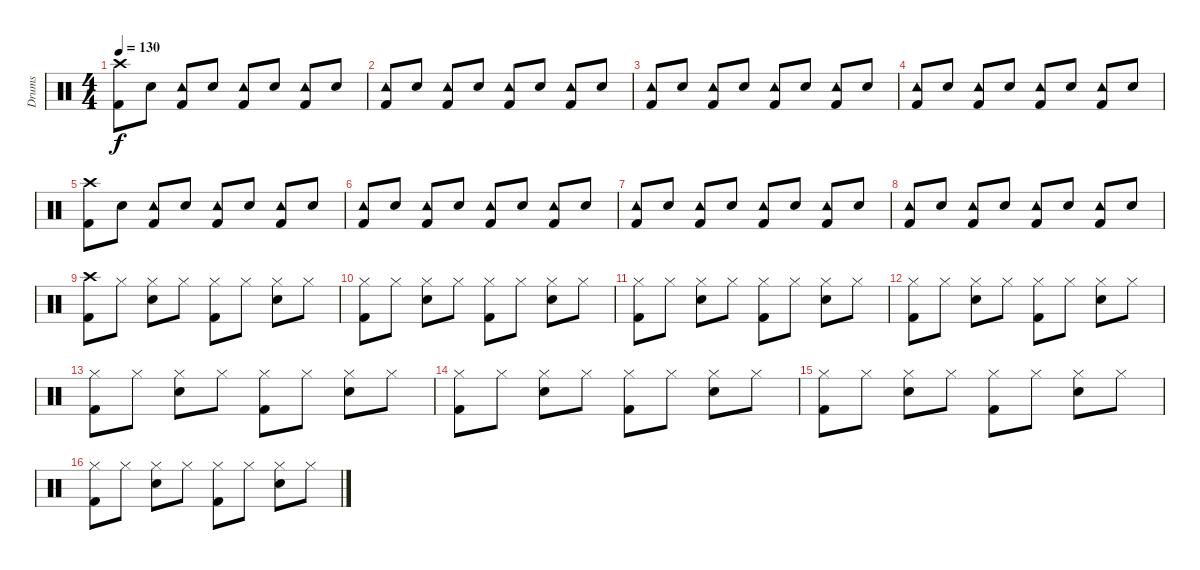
\track ("Drums" "Drums") {instrument percussion}
\staff {score}
\articulation defaults
\ts (4 4)
\tempo 130
\clef neutral
\ks c
("Crash high (hit)" "Kick (hit) 2").8{dy f} "Snare (hit) 2".8 ("Tambourine (hit)" "Kick (hit) 2").8 "Snare (hit) 2".8 ("Tambourine (hit)" "Kick (hit) 2").8 "Snare (hit) 2".8 ("Tambourine (hit)" "Kick (hit) 2").8 "Snare (hit) 2".8 |
("Tambourine (hit)" "Kick (hit) 2").8 "Snare (hit) 2".8 ("Tambourine (hit)" "Kick (hit) 2").8 "Snare (hit) 2".8 ("Tambourine (hit)" "Kick (hit) 2").8 "Snare (hit) 2".8 ("Tambourine (hit)" "Kick (hit) 2").8 "Snare (hit) 2".8 |
("Tambourine (hit)" "Kick (hit) 2").8 "Snare (hit) 2".8 ("Tambourine (hit)" "Kick (hit) 2").8 "Snare (hit) 2".8 ("Tambourine (hit)" "Kick (hit) 2").8 "Snare (hit) 2".8 ("Tambourine (hit)" "Kick (hit) 2").8 "Snare (hit) 2".8 |
("Tambourine (hit)" "Kick (hit) 2").8 "Snare (hit) 2".8 ("Tambourine (hit)" "Kick (hit) 2").8 "Snare (hit) 2".8 ("Tambourine (hit)" "Kick (hit) 2").8 "Snare (hit) 2".8 ("Tambourine (hit)" "Kick (hit) 2").8 "Snare (hit) 2".8 |
("Crash high (hit)" "Kick (hit) 2").8 "Snare (hit) 2".8 ("Tambourine (hit)" "Kick (hit) 2").8 "Snare (hit) 2".8 ("Tambourine (hit)" "Kick (hit) 2").8 "Snare (hit) 2".8 ("Tambourine (hit)" "Kick (hit) 2").8 "Snare (hit) 2".8 |
("Tambourine (hit)" "Kick (hit) 2").8 "Snare (hit) 2".8 ("Tambourine (hit)" "Kick (hit) 2").8 "Snare (hit) 2".8 ("Tambourine (hit)" "Kick (hit) 2").8 "Snare (hit) 2".8 ("Tambourine (hit)" "Kick (hit) 2").8 "Snare (hit) 2".8 |
("Tambourine (hit)" "Kick (hit) 2").8 "Snare (hit) 2".8 ("Tambourine (hit)" "Kick (hit) 2").8 "Snare (hit) 2".8 ("Tambourine (hit)" "Kick (hit) 2").8 "Snare (hit) 2".8 ("Tambourine (hit)" "Kick (hit) 2").8 "Snare (hit) 2".8 |
("Tambourine (hit)" "Kick (hit) 2").8 "Snare (hit) 2".8 ("Tambourine (hit)" "Kick (hit) 2").8 "Snare (hit) 2".8 ("Tambourine (hit)" "Kick (hit) 2").8 "Snare (hit) 2".8 ("Tambourine (hit)" "Kick (hit) 2").8 "Snare (hit) 2".8 |
("Crash high (hit)" "Kick (hit) 2").8 "Hi-Hat (closed)".8 ("Hi-Hat (closed)" "Snare (hit) 2").8 "Hi-Hat (closed)".8 ("Hi-Hat (closed)" "Kick (hit) 2").8 "Hi-Hat (closed)".8 ("Hi-Hat (closed)" "Snare (hit) 2").8 "Hi-Hat (closed)".8 |
("Hi-Hat (closed)" "Kick (hit) 2").8 "Hi-Hat (closed)".8 ("Hi-Hat (closed)" "Snare (hit) 2").8 "Hi-Hat (closed)".8 ("Hi-Hat (closed)" "Kick (hit) 2").8 "Hi-Hat (closed)".8 ("Hi-Hat (closed)" "Snare (hit) 2").8 "Hi-Hat (closed)".8 |
("Hi-Hat (closed)" "Kick (hit) 2").8 "Hi-Hat (closed)".8 ("Hi-Hat (closed)" "Snare (hit) 2").8 "Hi-Hat (closed)".8 ("Hi-Hat (closed)" "Kick (hit) 2").8 "Hi-Hat (closed)".8 ("Hi-Hat (closed)" "Snare (hit) 2").8 "Hi-Hat (closed)".8 |
("Hi-Hat (closed)" "Kick (hit) 2").8 "Hi-Hat (closed)".8 ("Hi-Hat (closed)" "Snare (hit) 2").8 "Hi-Hat (closed)".8 ("Hi-Hat (closed)" "Kick (hit) 2").8 "Hi-Hat (closed)".8 ("Hi-Hat (closed)" "Snare (hit) 2").8 "Hi-Hat (closed)".8 |
("Hi-Hat (closed)" "Kick (hit) 2").8 "Hi-Hat (closed)".8 ("Hi-Hat (closed)" "Snare (hit) 2").8 "Hi-Hat (closed)".8 ("Hi-Hat (closed)" "Kick (hit) 2").8 "Hi-Hat (closed)".8 ("Hi-Hat (closed)" "Snare (hit) 2").8 "Hi-Hat (closed)".8 |
("Hi-Hat (closed)" "Kick (hit) 2").8 "Hi-Hat (closed)".8 ("Hi-Hat (closed)" "Snare (hit) 2").8 "Hi-Hat (closed)".8 ("Hi-Hat (closed)" "Kick (hit) 2").8 "Hi-Hat (closed)".8 ("Hi-Hat (closed)" "Snare (hit) 2").8 "Hi-Hat (closed)".8 |
("Hi-Hat (closed)" "Kick (hit) 2").8 "Hi-Hat (closed)".8 ("Hi-Hat (closed)" "Snare (hit) 2").8 "Hi-Hat (closed)".8 ("Hi-Hat (closed)" "Kick (hit) 2").8 "Hi-Hat (closed)".8 ("Hi-Hat (closed)" "Snare (hit) 2").8 "Hi-Hat (closed)".8 |
("Hi-Hat (closed)" "Kick (hit) 2").8 "Hi-Hat (closed)".8 ("Hi-Hat (closed)" "Snare (hit) 2").8 "Hi-Hat (closed)".8 ("Hi-Hat (closed)" "Kick (hit) 2").8 "Hi-Hat (closed)".8 ("Hi-Hat (closed)" "Snare (hit) 2").8 "Hi-Hat (closed)".8
